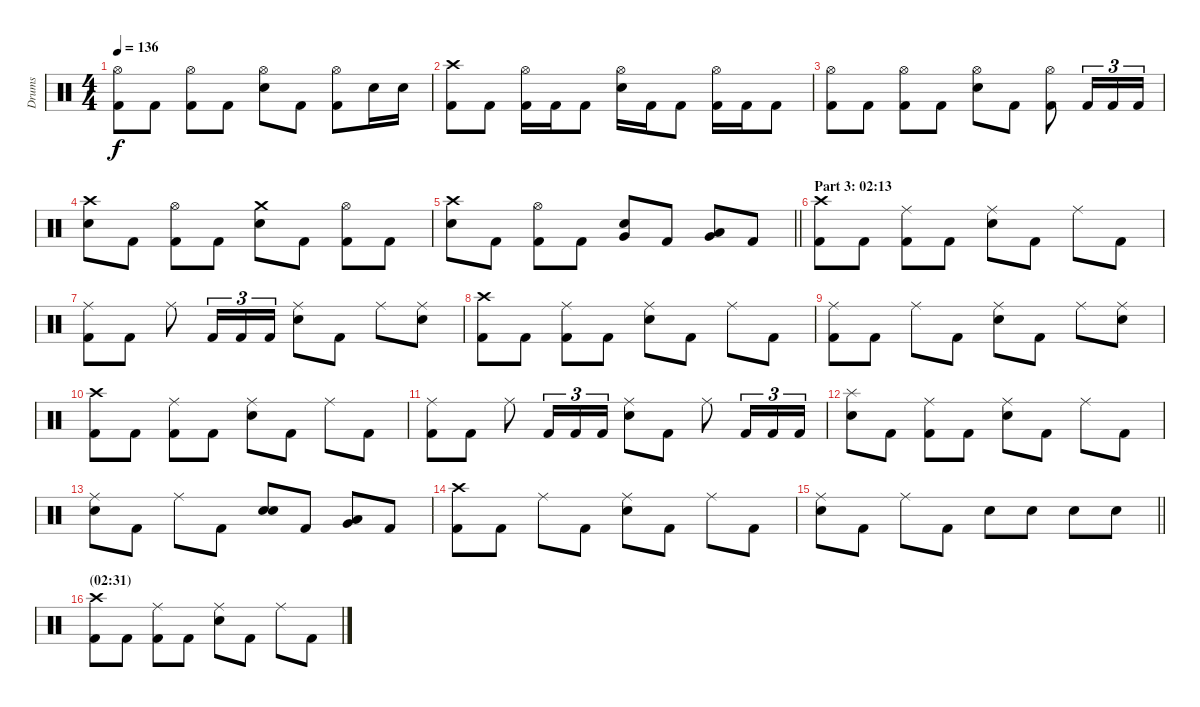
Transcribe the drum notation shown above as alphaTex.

\track ("Drums" "Drums") {instrument percussion}
\staff {score}
\articulation defaults
\ts (4 4)
\tempo 136
\clef neutral
\ks c
("Hi-Hat (open)" "Kick (hit) 2").8{dy f} "Kick (hit) 2".8 ("Hi-Hat (open)" "Kick (hit) 2").8 "Kick (hit) 2".8 ("Hi-Hat (open)" "Electric Snare (hit)").8 "Kick (hit) 2".8 ("Hi-Hat (open)" "Kick (hit) 2").8 "Electric Snare (hit)".16 "Electric Snare (hit)".16 |
("Crash high (hit)" "Kick (hit) 2").8 "Kick (hit) 2".8 ("Hi-Hat (open)" "Kick (hit) 2").16 "Kick (hit) 2".16 "Kick (hit) 2".8 ("Hi-Hat (open)" "Electric Snare (hit)").16 "Kick (hit) 2".16 "Kick (hit) 2".8 ("Hi-Hat (open)" "Kick (hit) 2").16 "Kick (hit) 2".16 "Kick (hit) 2".8 |
("Hi-Hat (open)" "Kick (hit) 2").8 "Kick (hit) 2".8 ("Hi-Hat (open)" "Kick (hit) 2").8 "Kick (hit) 2".8 ("Hi-Hat (open)" "Electric Snare (hit)").8 "Kick (hit) 2".8 ("Hi-Hat (open)" "Kick (hit) 2").8 "Kick (hit) 2".16{tu (3 2)} "Kick (hit) 2".16{tu (3 2)} "Kick (hit) 2".16{tu (3 2)} |
("Crash high (hit)" "Electric Snare (hit)").8 "Kick (hit) 2".8 ("Hi-Hat (open)" "Kick (hit) 2").8 "Kick (hit) 2".8 ("Crash medium (hit)" "Electric Snare (hit)").8 "Kick (hit) 2".8 ("Hi-Hat (open)" "Kick (hit) 2").8 "Kick (hit) 2".8 |
\barLineRight lightlight
("Crash high (hit)" "Electric Snare (hit)").8 "Kick (hit) 2".8 ("Hi-Hat (open)" "Kick (hit) 2").8 "Kick (hit) 2".8 ("Very Low Tom (hit)" "Electric Snare (hit)").8 "Kick (hit) 2".8 ("Low Tom (hit)" "Very Low Tom (hit)").8 "Kick (hit) 2".8 |
\section ("" "Part 3: 02:13")
("Crash high (hit)" "Kick (hit) 2").8 "Kick (hit) 2".8 ("Ride (middle)" "Kick (hit) 2").8 "Kick (hit) 2".8 ("Ride (middle)" "Electric Snare (hit)").8 "Kick (hit) 2".8 "Ride (middle)".8 "Kick (hit) 2".8 |
("Ride (middle)" "Kick (hit) 2").8 "Kick (hit) 2".8 "Ride (middle)".8 "Kick (hit) 2".16{tu (3 2)} "Kick (hit) 2".16{tu (3 2)} "Kick (hit) 2".16{tu (3 2)} ("Ride (middle)" "Electric Snare (hit)").8 "Kick (hit) 2".8 "Ride (middle)".8 ("Ride (middle)" "Electric Snare (hit)").8 |
("Crash high (hit)" "Kick (hit) 2").8 "Kick (hit) 2".8 ("Ride (middle)" "Kick (hit) 2").8 "Kick (hit) 2".8 ("Ride (middle)" "Electric Snare (hit)").8 "Kick (hit) 2".8 "Ride (middle)".8 "Kick (hit) 2".8 |
("Ride (middle)" "Kick (hit) 2").8 "Kick (hit) 2".8 "Ride (middle)".8 "Kick (hit) 2".8 ("Ride (middle)" "Electric Snare (hit)").8 "Kick (hit) 2".8 "Ride (middle)".8 ("Ride (middle)" "Electric Snare (hit)").8 |
("Crash high (hit)" "Kick (hit) 2").8 "Kick (hit) 2".8 ("Ride (middle)" "Kick (hit) 2").8 "Kick (hit) 2".8 ("Ride (middle)" "Electric Snare (hit)").8 "Kick (hit) 2".8 "Ride (middle)".8 "Kick (hit) 2".8 |
("Ride (middle)" "Kick (hit) 2").8 "Kick (hit) 2".8 "Ride (middle)".8 "Kick (hit) 2".16{tu (3 2)} "Kick (hit) 2".16{tu (3 2)} "Kick (hit) 2".16{tu (3 2)} ("Ride (middle)" "Electric Snare (hit)").8 "Kick (hit) 2".8 "Ride (middle)".8 "Kick (hit) 2".16{tu (3 2)} "Kick (hit) 2".16{tu (3 2)} "Kick (hit) 2".16{tu (3 2)} |
("Splash (hit)" "Electric Snare (hit)").8 "Kick (hit) 2".8 ("Ride (middle)" "Kick (hit) 2").8 "Kick (hit) 2".8 ("Ride (middle)" "Electric Snare (hit)").8 "Kick (hit) 2".8 "Ride (middle)".8 "Kick (hit) 2".8 |
("Ride (middle)" "Electric Snare (hit)").8 "Kick (hit) 2".8 "Ride (middle)".8 "Kick (hit) 2".8 ("Electric Snare (hit)" "Electric Snare (hit)").8{bd 240} "Kick (hit) 2".8 ("Low Tom (hit)" "Very Low Tom (hit)").8 "Kick (hit) 2".8 |
("Crash high (hit)" "Kick (hit) 2").8 "Kick (hit) 2".8 "Ride (middle)".8 "Kick (hit) 2".8 ("Ride (middle)" "Electric Snare (hit)").8 "Kick (hit) 2".8 "Ride (middle)".8 "Kick (hit) 2".8 |
\barLineRight lightlight
("Ride (middle)" "Electric Snare (hit)").8 "Kick (hit) 2".8 "Ride (middle)".8 "Kick (hit) 2".8 "Electric Snare (hit)".8 "Electric Snare (hit)".8 "Electric Snare (hit)".8 "Electric Snare (hit)".8 |
\section ("" "(02:31)")
("Crash high (hit)" "Kick (hit) 2").8 "Kick (hit) 2".8 ("Ride (middle)" "Kick (hit) 2").8 "Kick (hit) 2".8 ("Ride (middle)" "Electric Snare (hit)").8 "Kick (hit) 2".8 "Ride (middle)".8 "Kick (hit) 2".8
